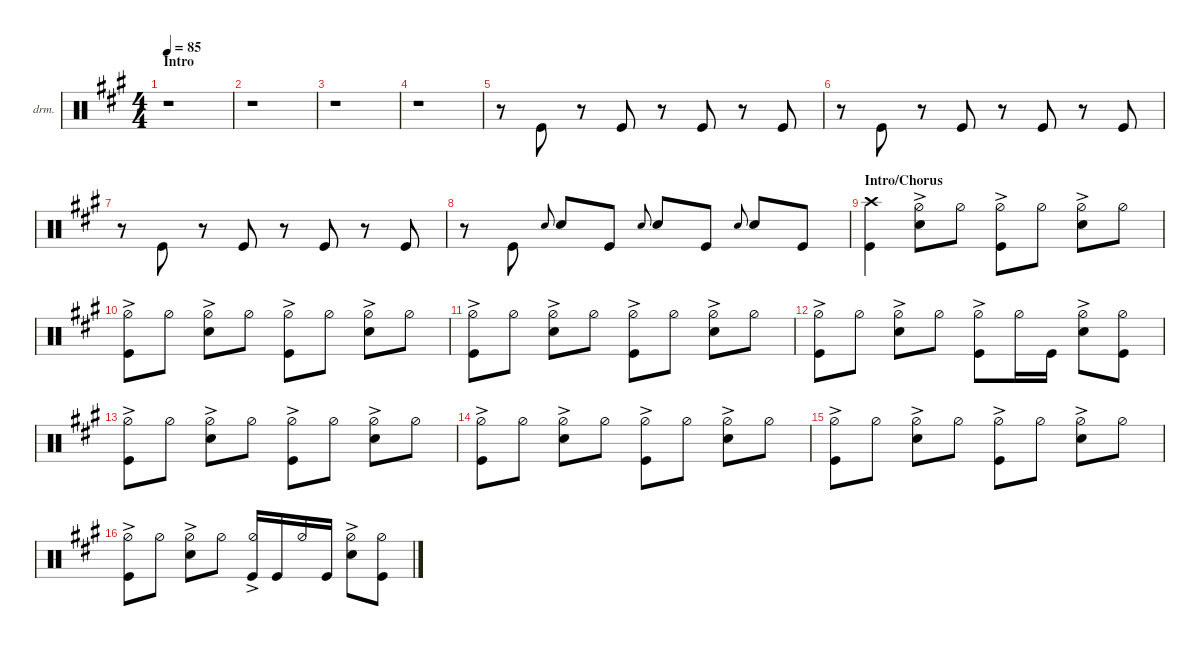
\defaultSystemsLayout 4
\hideDynamics
\bracketExtendMode nobrackets
\firstSystemTrackNameOrientation horizontal
\otherSystemsTrackNameOrientation horizontal
\track ("Drums" "drm.") {instrument percussion}
\staff {score}
\articulation defaults
\ts (4 4)
\section ("" "Intro")
\tempo 85
\clef neutral
\ks a
r.1{dy mf beam Down} |
r.1{beam Down} |
r.1{beam Down} |
r.1{beam Down} |
r.8{beam Down} "Kick (hit)"{acc forcenatural}.8{beam Up} r.8{beam Up} "Kick (hit)"{acc forcenatural}.8{beam Up} r.8{beam Up} "Kick (hit)"{acc forcenatural}.8{beam Up} r.8{beam Up} "Kick (hit)"{acc forcenatural}.8{beam Up} |
r.8{beam Down} "Kick (hit)"{acc forcenatural}.8{beam Up} r.8{beam Up} "Kick (hit)"{acc forcenatural}.8{beam Up} r.8{beam Up} "Kick (hit)"{acc forcenatural}.8{beam Up} r.8{beam Up} "Kick (hit)"{acc forcenatural}.8{beam Up} |
r.8{beam Down} "Kick (hit)"{acc forcenatural}.8{beam Up} r.8{beam Up} "Kick (hit)"{acc forcenatural}.8{beam Up} r.8{beam Up} "Kick (hit)"{acc forcenatural}.8{beam Up} r.8{beam Up} "Kick (hit)"{acc forcenatural}.8{beam Up} |
r.8{beam Down} "Kick (hit)"{acc forcenatural}.8{beam Up} "Snare (hit) 2"{acc forcenatural}.8{gr onbeat beam Up} "Snare (hit) 2"{acc forcenatural}.8{beam Up} "Kick (hit)"{acc forcenatural}.8{beam Up} "Snare (hit) 2"{acc forcenatural}.8{gr onbeat beam Up} "Snare (hit) 2"{acc forcenatural}.8{beam Up} "Kick (hit)"{acc forcenatural}.8{beam Up} "Snare (hit) 2"{acc forcenatural}.8{gr onbeat beam Up} "Snare (hit) 2"{acc forcenatural}.8{beam Up} "Kick (hit)"{acc forcenatural}.8{beam Up} |
\section ("" "Intro/Chorus")
("Kick (hit)"{acc forcenatural} "Crash high (hit)"{acc forcenatural}).4{beam Down} ("Snare (hit) 2"{acc forcenatural} "Hi-Hat (half)"{ac acc forcenatural}).8{beam Down} "Hi-Hat (half)"{acc forcenatural}.8{beam Down} ("Hi-Hat (half)"{ac acc forcenatural} "Kick (hit)"{acc forcenatural}).8{beam Down} "Hi-Hat (half)"{acc forcenatural}.8{beam Down} ("Snare (hit) 2"{acc forcenatural} "Hi-Hat (half)"{ac acc forcenatural}).8{beam Down} "Hi-Hat (half)"{acc forcenatural}.8{beam Down} |
("Kick (hit)"{acc forcenatural} "Hi-Hat (half)"{ac acc forcenatural}).8{beam Down} "Hi-Hat (half)"{acc forcenatural}.8{beam Down} ("Snare (hit) 2"{acc forcenatural} "Hi-Hat (half)"{ac acc forcenatural}).8{beam Down} "Hi-Hat (half)"{acc forcenatural}.8{beam Down} ("Hi-Hat (half)"{ac acc forcenatural} "Kick (hit)"{acc forcenatural}).8{beam Down} "Hi-Hat (half)"{acc forcenatural}.8{beam Down} ("Snare (hit) 2"{acc forcenatural} "Hi-Hat (half)"{ac acc forcenatural}).8{beam Down} "Hi-Hat (half)"{acc forcenatural}.8{beam Down} |
("Kick (hit)"{acc forcenatural} "Hi-Hat (half)"{ac acc forcenatural}).8{beam Down} "Hi-Hat (half)"{acc forcenatural}.8{beam Down} ("Snare (hit) 2"{acc forcenatural} "Hi-Hat (half)"{ac acc forcenatural}).8{beam Down} "Hi-Hat (half)"{acc forcenatural}.8{beam Down} ("Hi-Hat (half)"{ac acc forcenatural} "Kick (hit)"{acc forcenatural}).8{beam Down} "Hi-Hat (half)"{acc forcenatural}.8{beam Down} ("Snare (hit) 2"{acc forcenatural} "Hi-Hat (half)"{ac acc forcenatural}).8{beam Down} "Hi-Hat (half)"{acc forcenatural}.8{beam Down} |
("Kick (hit)"{acc forcenatural} "Hi-Hat (half)"{ac acc forcenatural}).8{beam Down} "Hi-Hat (half)"{acc forcenatural}.8{beam Down} ("Snare (hit) 2"{acc forcenatural} "Hi-Hat (half)"{ac acc forcenatural}).8{beam Down} "Hi-Hat (half)"{acc forcenatural}.8{beam Down} ("Hi-Hat (half)"{ac acc forcenatural} "Kick (hit)"{acc forcenatural}).8{beam Down} "Hi-Hat (half)"{acc forcenatural}.16{beam Down} "Kick (hit)"{acc forcenatural}.16{beam Down} ("Snare (hit) 2"{acc forcenatural} "Hi-Hat (half)"{ac acc forcenatural}).8{beam Down} ("Kick (hit)"{acc forcenatural} "Hi-Hat (half)"{acc forcenatural}).8{beam Down} |
("Kick (hit)"{acc forcenatural} "Hi-Hat (half)"{ac acc forcenatural}).8{beam Down} "Hi-Hat (half)"{acc forcenatural}.8{beam Down} ("Snare (hit) 2"{acc forcenatural} "Hi-Hat (half)"{ac acc forcenatural}).8{beam Down} "Hi-Hat (half)"{acc forcenatural}.8{beam Down} ("Hi-Hat (half)"{ac acc forcenatural} "Kick (hit)"{acc forcenatural}).8{beam Down} "Hi-Hat (half)"{acc forcenatural}.8{beam Down} ("Snare (hit) 2"{acc forcenatural} "Hi-Hat (half)"{ac acc forcenatural}).8{beam Down} "Hi-Hat (half)"{acc forcenatural}.8{beam Down} |
("Kick (hit)"{acc forcenatural} "Hi-Hat (half)"{ac acc forcenatural}).8{beam Down} "Hi-Hat (half)"{acc forcenatural}.8{beam Down} ("Snare (hit) 2"{acc forcenatural} "Hi-Hat (half)"{ac acc forcenatural}).8{beam Down} "Hi-Hat (half)"{acc forcenatural}.8{beam Down} ("Hi-Hat (half)"{ac acc forcenatural} "Kick (hit)"{acc forcenatural}).8{beam Down} "Hi-Hat (half)"{acc forcenatural}.8{beam Down} ("Snare (hit) 2"{acc forcenatural} "Hi-Hat (half)"{ac acc forcenatural}).8{beam Down} "Hi-Hat (half)"{acc forcenatural}.8{beam Down} |
("Kick (hit)"{acc forcenatural} "Hi-Hat (half)"{ac acc forcenatural}).8{beam Down} "Hi-Hat (half)"{acc forcenatural}.8{beam Down} ("Snare (hit) 2"{acc forcenatural} "Hi-Hat (half)"{ac acc forcenatural}).8{beam Down} "Hi-Hat (half)"{acc forcenatural}.8{beam Down} ("Hi-Hat (half)"{ac acc forcenatural} "Kick (hit)"{acc forcenatural}).8{beam Down} "Hi-Hat (half)"{acc forcenatural}.8{beam Down} ("Snare (hit) 2"{acc forcenatural} "Hi-Hat (half)"{ac acc forcenatural}).8{beam Down} "Hi-Hat (half)"{acc forcenatural}.8{beam Down} |
("Kick (hit)"{acc forcenatural} "Hi-Hat (half)"{ac acc forcenatural}).8{beam Down} "Hi-Hat (half)"{acc forcenatural}.8{beam Down} ("Snare (hit) 2"{acc forcenatural} "Hi-Hat (half)"{ac acc forcenatural}).8{beam Down} "Hi-Hat (half)"{acc forcenatural}.8{beam Down} ("Hi-Hat (half)"{ac acc forcenatural} "Kick (hit)"{acc forcenatural}).16{beam Up} "Kick (hit)"{acc forcenatural}.16{beam Up} "Hi-Hat (half)"{acc forcenatural}.16{beam Up} "Kick (hit)"{acc forcenatural}.16{beam Up} ("Snare (hit) 2"{acc forcenatural} "Hi-Hat (half)"{ac acc forcenatural}).8{beam Down} ("Kick (hit)"{acc forcenatural} "Hi-Hat (half)"{acc forcenatural}).8{beam Down}
